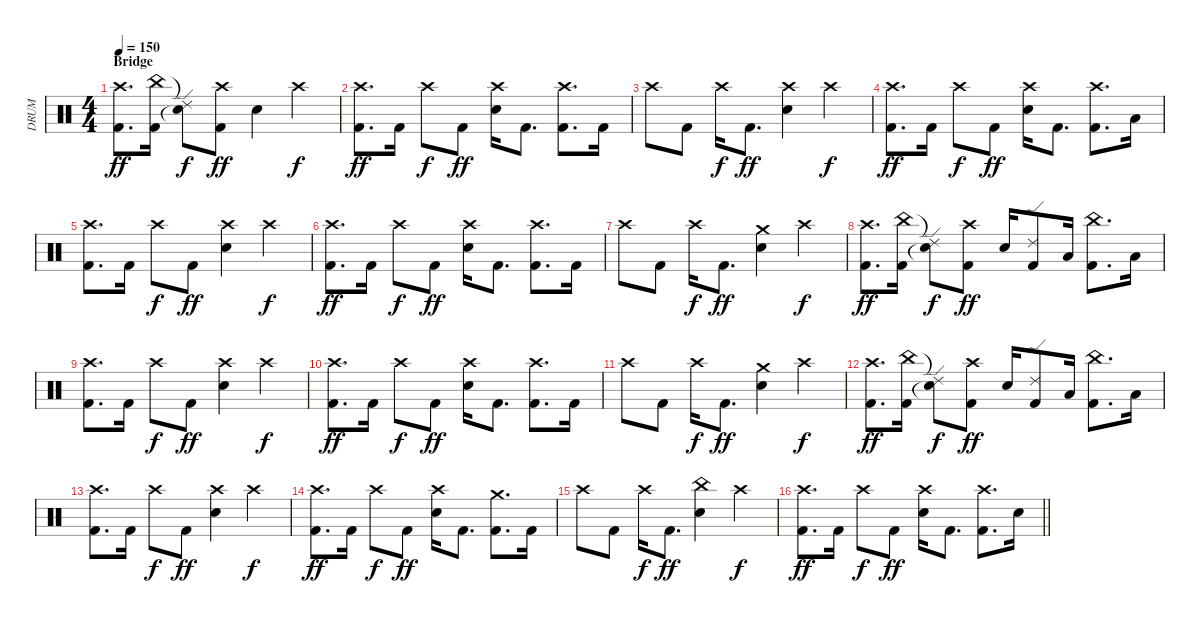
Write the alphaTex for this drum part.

\track ("DRUM" "DRUM") {instrument percussion}
\staff {score}
\articulation defaults
\ts (4 4)
\section ("" "Bridge")
\tempo 150
\clef neutral
\ks c
("Crash high (hit)" "Kick (hit) 2").8{d dy ff} ("China (hit)" "Kick (hit) 2").16 ("Ride (edge) 2"{t} "Snare (hit)"{t}).8{dy f} ("Crash high (hit)" "Kick (hit) 2").8{dy ff} "Snare (hit) 2".4 "Crash high (hit)".4{dy f} |
("Crash high (hit)" "Kick (hit) 2").8{d dy ff} "Kick (hit) 2".16 "Crash high (hit)".8{dy f} "Kick (hit) 2".8{dy ff} ("Crash high (hit)" "Snare (hit) 2").16 "Kick (hit) 2".8{d} ("Crash high (hit)" "Kick (hit) 2").8{d} "Kick (hit) 2".16 |
"Crash high (hit)".8 "Kick (hit) 2".8 "Crash high (hit)".16{dy f} "Kick (hit) 2".8{d dy ff} ("Crash high (hit)" "Snare (hit) 2").4 "Crash high (hit)".4{dy f} |
("Crash high (hit)" "Kick (hit) 2").8{d dy ff} "Kick (hit) 2".16 "Crash high (hit)".8{dy f} "Kick (hit) 2".8{dy ff} ("Crash high (hit)" "Snare (hit) 2").16 "Kick (hit) 2".8{d} ("Crash high (hit)" "Kick (hit) 2").8{d} "Low Floor Tom (hit)".16 |
("Crash high (hit)" "Kick (hit) 2").8{d} "Kick (hit) 2".16 "Crash high (hit)".8{dy f} "Kick (hit) 2".8{dy ff} ("Crash high (hit)" "Snare (hit) 2").4 "Crash high (hit)".4{dy f} |
("Crash high (hit)" "Kick (hit) 2").8{d dy ff} "Kick (hit) 2".16 "Crash high (hit)".8{dy f} "Kick (hit) 2".8{dy ff} ("Crash high (hit)" "Snare (hit) 2").16 "Kick (hit) 2".8{d} ("Crash high (hit)" "Kick (hit) 2").8{d} "Kick (hit) 2".16 |
"Crash high (hit)".8 "Kick (hit) 2".8 "Crash high (hit)".16{dy f} "Kick (hit) 2".8{d dy ff} ("Crash medium (hit)" "Snare (hit) 2").4 "Crash high (hit)".4{dy f} |
("Crash high (hit)" "Kick (hit) 2").8{d dy ff} ("China (hit)" "Kick (hit) 2").16 ("Ride (edge) 2"{t} "Snare (hit)"{t}).8{dy f} ("Crash high (hit)" "Kick (hit) 2").8{dy ff} "Snare (hit) 2".16 ("Ride (edge) 2" "Kick (hit) 2").8 "Low Tom (hit)".16 ("China (hit)" "Kick (hit) 2").8{d} "Low Floor Tom (hit)".16 |
("Crash high (hit)" "Kick (hit) 2").8{d} "Kick (hit) 2".16 "Crash high (hit)".8{dy f} "Kick (hit) 2".8{dy ff} ("Crash high (hit)" "Snare (hit) 2").4 "Crash high (hit)".4{dy f} |
("Crash high (hit)" "Kick (hit) 2").8{d dy ff} "Kick (hit) 2".16 "Crash high (hit)".8{dy f} "Kick (hit) 2".8{dy ff} ("Crash high (hit)" "Snare (hit) 2").16 "Kick (hit) 2".8{d} ("Crash high (hit)" "Kick (hit) 2").8{d} "Kick (hit) 2".16 |
"Crash high (hit)".8 "Kick (hit) 2".8 "Crash high (hit)".16{dy f} "Kick (hit) 2".8{d dy ff} ("Crash medium (hit)" "Snare (hit) 2").4 "Crash high (hit)".4{dy f} |
("Crash high (hit)" "Kick (hit) 2").8{d dy ff} ("China (hit)" "Kick (hit) 2").16 ("Ride (edge) 2"{t} "Snare (hit)"{t}).8{dy f} ("Crash high (hit)" "Kick (hit) 2").8{dy ff} "Snare (hit) 2".16 ("Ride (edge) 2" "Kick (hit) 2").8 "Low Tom (hit)".16 ("China (hit)" "Kick (hit) 2").8{d} "Low Floor Tom (hit)".16 |
("Crash high (hit)" "Kick (hit) 2").8{d} "Kick (hit) 2".16 "Crash high (hit)".8{dy f} "Kick (hit) 2".8{dy ff} ("Crash high (hit)" "Snare (hit) 2").4 "Crash high (hit)".4{dy f} |
("Crash high (hit)" "Kick (hit) 2").8{d dy ff} "Kick (hit) 2".16 "Crash high (hit)".8{dy f} "Kick (hit) 2".8{dy ff} ("Crash high (hit)" "Snare (hit) 2").16 "Kick (hit) 2".8{d} ("Crash medium (hit)" "Kick (hit) 2").8{d} "Kick (hit) 2".16 |
"Crash high (hit)".8 "Kick (hit) 2".8 "Crash high (hit)".16{dy f} "Kick (hit) 2".8{d dy ff} ("China (hit)" "Snare (hit) 2").4 "Crash high (hit)".4{dy f} |
\barLineRight lightlight
("Crash high (hit)" "Kick (hit) 2").8{d dy ff} "Kick (hit) 2".16 "Crash high (hit)".8{dy f} "Kick (hit) 2".8{dy ff} ("Crash high (hit)" "Snare (hit) 2").16 "Kick (hit) 2".8{d} ("Crash high (hit)" "Kick (hit) 2").8{d} "Snare (hit) 2".16
